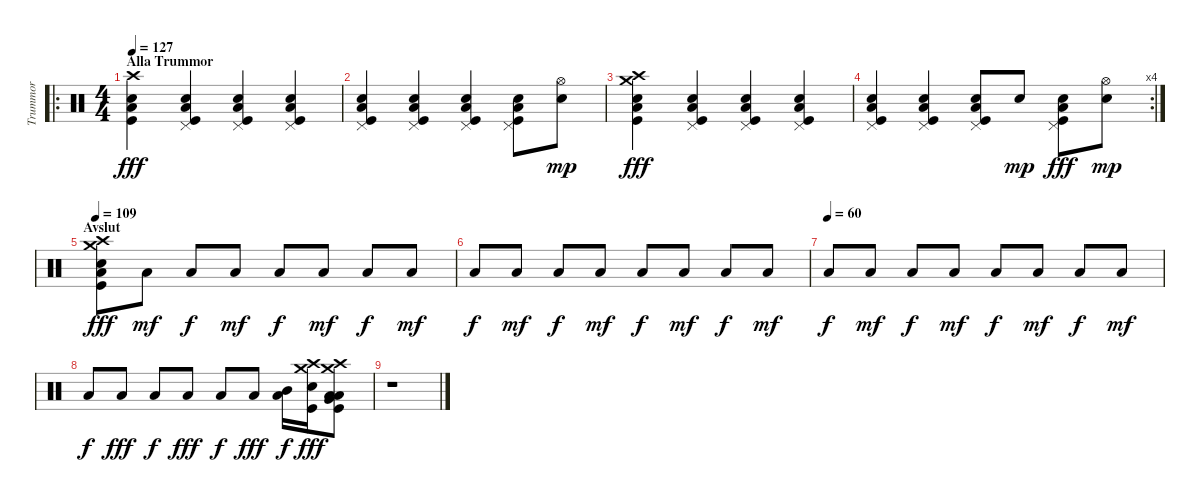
\track ("Trummor" "Trummor") {instrument percussion}
\staff {score}
\articulation defaults
\ro
\ts (4 4)
\section ("" "Alla Trummor")
\tempo 127
\clef neutral
\ks c
("Crash high (hit)" "Electric Snare (hit)" "Low Floor Tom (hit)" "Kick (hit)").4{dy fff} ("Pedal Hi-Hat (hit)" "Electric Snare (hit)" "Low Floor Tom (hit)" "Kick (hit)").4 ("Pedal Hi-Hat (hit)" "Electric Snare (hit)" "Low Floor Tom (hit)" "Kick (hit)").4 ("Pedal Hi-Hat (hit)" "Electric Snare (hit)" "Low Floor Tom (hit)" "Kick (hit)").4 |
("Pedal Hi-Hat (hit)" "Electric Snare (hit)" "Low Floor Tom (hit)" "Kick (hit)").4 ("Pedal Hi-Hat (hit)" "Electric Snare (hit)" "Low Floor Tom (hit)" "Kick (hit)").4 ("Pedal Hi-Hat (hit)" "Electric Snare (hit)" "Low Floor Tom (hit)" "Kick (hit)").4 ("Pedal Hi-Hat (hit)" "Electric Snare (hit)" "Low Floor Tom (hit)" "Kick (hit)").8 ("Hi-Hat (open)" "Electric Snare (hit)").8{dy mp} |
("Crash high (hit)" "Crash medium (hit)" "Electric Snare (hit)" "Low Floor Tom (hit)" "Kick (hit)").4{dy fff} ("Pedal Hi-Hat (hit)" "Electric Snare (hit)" "Low Floor Tom (hit)" "Kick (hit)").4 ("Pedal Hi-Hat (hit)" "Electric Snare (hit)" "Low Floor Tom (hit)" "Kick (hit)").4 ("Pedal Hi-Hat (hit)" "Electric Snare (hit)" "Low Floor Tom (hit)" "Kick (hit)").4 |
\rc 4
("Pedal Hi-Hat (hit)" "Electric Snare (hit)" "Low Floor Tom (hit)" "Kick (hit)").4 ("Pedal Hi-Hat (hit)" "Electric Snare (hit)" "Low Floor Tom (hit)" "Kick (hit)").4 ("Pedal Hi-Hat (hit)" "Electric Snare (hit)" "Low Floor Tom (hit)" "Kick (hit)").8 "Electric Snare (hit)".8{dy mp} ("Pedal Hi-Hat (hit)" "Electric Snare (hit)" "Low Floor Tom (hit)" "Kick (hit)").8{dy fff} ("Hi-Hat (open)" "Electric Snare (hit)").8{dy mp} |
\section ("" "Avslut")
\tempo 109
("Crash high (hit)" "Crash medium (hit)" "Electric Snare (hit)" "Low Floor Tom (hit)" "Kick (hit)").8{dy fff} "Low Floor Tom (hit)".8{dy mf} "Low Floor Tom (hit)".8{dy f} "Low Floor Tom (hit)".8{dy mf} "Low Floor Tom (hit)".8{dy f} "Low Floor Tom (hit)".8{dy mf} "Low Floor Tom (hit)".8{dy f} "Low Floor Tom (hit)".8{dy mf} |
"Low Floor Tom (hit)".8{dy f} "Low Floor Tom (hit)".8{dy mf} "Low Floor Tom (hit)".8{dy f} "Low Floor Tom (hit)".8{dy mf} "Low Floor Tom (hit)".8{dy f} "Low Floor Tom (hit)".8{dy mf} "Low Floor Tom (hit)".8{dy f} "Low Floor Tom (hit)".8{dy mf} |
\tempo (60)
"Low Floor Tom (hit)".8{dy f} "Low Floor Tom (hit)".8{dy mf} "Low Floor Tom (hit)".8{dy f} "Low Floor Tom (hit)".8{dy mf} "Low Floor Tom (hit)".8{dy f} "Low Floor Tom (hit)".8{dy mf} "Low Floor Tom (hit)".8{dy f} "Low Floor Tom (hit)".8{dy mf} |
"Low Floor Tom (hit)".8{dy f} "Low Floor Tom (hit)".8{dy fff} "Low Floor Tom (hit)".8{dy f} "Low Floor Tom (hit)".8{dy fff} "Low Floor Tom (hit)".8{dy f} "Low Floor Tom (hit)".8{dy fff} ("Mid Tom (hit)" "Low Tom (hit)").16{dy f} ("Crash high (hit)" "Electric Snare (hit)" "Crash medium (hit)" "Kick (hit)").16{dy fff} ("Very Low Tom (hit)" "Crash high (hit)" "Low Floor Tom (hit)" "Crash medium (hit)" "Low Floor Tom (hit)" "Kick (hit)").8 |
r.1
